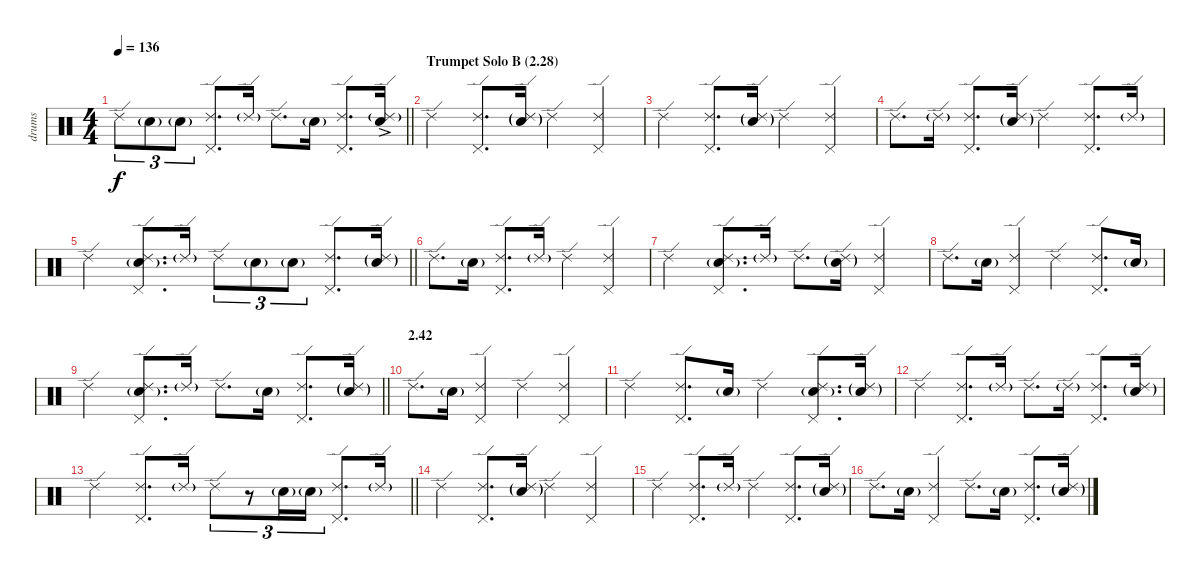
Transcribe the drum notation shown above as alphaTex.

\track ("drums" "drums") {instrument percussion}
\staff {score}
\articulation defaults
\ts (4 4)
\tempo 136
\clef neutral
\barLineRight lightlight
\ks c "Ride (edge) 2".8{tu (3 2) dy f} "Electric Snare (hit)"{g}.8{tu (3 2)} "Electric Snare (hit)"{g}.8{tu (3 2)}
("Ride (edge) 2" "Pedal Hi-Hat (hit)").8{d} "Ride (edge) 2"{g}.16 "Ride (edge) 2".8{d} "Electric Snare (hit)"{g}.16 ("Ride (edge) 2" "Pedal Hi-Hat (hit)").8{d} ("Ride (edge) 2"{g} "Electric Snare (hit)"{ac}).16 |
\section ("" "Trumpet Solo B (2.28)")
"Ride (edge) 2".4 ("Ride (edge) 2" "Pedal Hi-Hat (hit)").8{d} ("Ride (edge) 2"{g} "Electric Snare (hit)"{g}).16 "Ride (edge) 2".4 ("Ride (edge) 2" "Pedal Hi-Hat (hit)").4 |
"Ride (edge) 2".4 ("Ride (edge) 2" "Pedal Hi-Hat (hit)").8{d} ("Ride (edge) 2"{g} "Electric Snare (hit)"{g}).16 "Ride (edge) 2".4 ("Ride (edge) 2" "Pedal Hi-Hat (hit)").4 |
"Ride (edge) 2".8{d} "Ride (edge) 2"{g}.16 ("Ride (edge) 2" "Pedal Hi-Hat (hit)").8{d} ("Ride (edge) 2"{g} "Electric Snare (hit)"{g}).16 "Ride (edge) 2".4 ("Ride (edge) 2" "Pedal Hi-Hat (hit)").8{d} "Ride (edge) 2"{g}.16 |
\barLineRight lightlight "Ride (edge) 2".4
("Ride (edge) 2" "Pedal Hi-Hat (hit)" "Electric Snare (hit)"{g}).8{d} "Ride (edge) 2"{g}.16 "Ride (edge) 2".8{tu (3 2)} "Electric Snare (hit)"{g}.8{tu (3 2)} "Electric Snare (hit)"{g}.8{tu (3 2)} ("Ride (edge) 2" "Pedal Hi-Hat (hit)").8{d} ("Ride (edge) 2"{g} "Electric Snare (hit)"{g}).16 |
"Ride (edge) 2".8{d} "Electric Snare (hit)"{g}.16 ("Ride (edge) 2" "Pedal Hi-Hat (hit)").8{d} "Ride (edge) 2"{g}.16 "Ride (edge) 2".4 ("Ride (edge) 2" "Pedal Hi-Hat (hit)").4 |
"Ride (edge) 2".4 ("Ride (edge) 2" "Pedal Hi-Hat (hit)" "Electric Snare (hit)"{g}).8{d} "Ride (edge) 2"{g}.16 "Ride (edge) 2".8{d} ("Ride (edge) 2"{g} "Electric Snare (hit)"{g}).16 ("Ride (edge) 2" "Pedal Hi-Hat (hit)").4 |
"Ride (edge) 2".8{d} "Electric Snare (hit)"{g}.16 ("Ride (edge) 2" "Pedal Hi-Hat (hit)").4 "Ride (edge) 2".4 ("Ride (edge) 2" "Pedal Hi-Hat (hit)").8{d} "Electric Snare (hit)"{g}.16 |
\barLineRight lightlight "Ride (edge) 2".4
("Ride (edge) 2" "Pedal Hi-Hat (hit)" "Electric Snare (hit)"{g}).8{d} "Ride (edge) 2"{g}.16 "Ride (edge) 2".8{d} "Electric Snare (hit)"{g}.16 ("Ride (edge) 2" "Pedal Hi-Hat (hit)").8{d} ("Ride (edge) 2"{g} "Electric Snare (hit)"{g}).16 |
\section ("" "2.42")
"Ride (edge) 2".8{d} "Electric Snare (hit)"{g}.16 ("Ride (edge) 2" "Pedal Hi-Hat (hit)").4 "Ride (edge) 2".4 ("Ride (edge) 2" "Pedal Hi-Hat (hit)").4 |
"Ride (edge) 2".4 ("Ride (edge) 2" "Pedal Hi-Hat (hit)").8{d} "Electric Snare (hit)"{g}.16 "Ride (edge) 2".4 ("Ride (edge) 2" "Pedal Hi-Hat (hit)" "Electric Snare (hit)"{g}).8{d} ("Ride (edge) 2"{g} "Electric Snare (hit)"{g}).16 |
"Ride (edge) 2".4 ("Ride (edge) 2" "Pedal Hi-Hat (hit)").8{d} "Ride (edge) 2"{g}.16 "Ride (edge) 2".8{d} "Ride (edge) 2"{g}.16 ("Ride (edge) 2" "Pedal Hi-Hat (hit)").8{d} ("Ride (edge) 2"{g} "Electric Snare (hit)"{g}).16 |
\barLineRight lightlight "Ride (edge) 2".4
("Ride (edge) 2" "Pedal Hi-Hat (hit)").8{d} "Ride (edge) 2"{g}.16 "Ride (edge) 2".8{tu (3 2)} r.8{tu (3 2)} "Electric Snare (hit)"{g}.16{tu (3 2)} "Electric Snare (hit)"{g}.16{tu (3 2)} ("Ride (edge) 2" "Pedal Hi-Hat (hit)").8{d} "Ride (edge) 2"{g}.16 |
"Ride (edge) 2".4 ("Ride (edge) 2" "Pedal Hi-Hat (hit)").8{d} ("Ride (edge) 2"{g} "Electric Snare (hit)"{g}).16 "Ride (edge) 2".4 ("Ride (edge) 2" "Pedal Hi-Hat (hit)").4 |
"Ride (edge) 2".4 ("Ride (edge) 2" "Pedal Hi-Hat (hit)").8{d} "Ride (edge) 2"{g}.16 "Ride (edge) 2".4 ("Ride (edge) 2" "Pedal Hi-Hat (hit)").8{d} ("Ride (edge) 2"{g} "Electric Snare (hit)"{g}).16 |
"Ride (edge) 2".8{d} "Electric Snare (hit)"{g}.16 ("Ride (edge) 2" "Pedal Hi-Hat (hit)").4 "Ride (edge) 2".8{d} "Electric Snare (hit)"{g}.16 ("Ride (edge) 2" "Pedal Hi-Hat (hit)").8{d} ("Ride (edge) 2"{g} "Electric Snare (hit)"{g}).16
